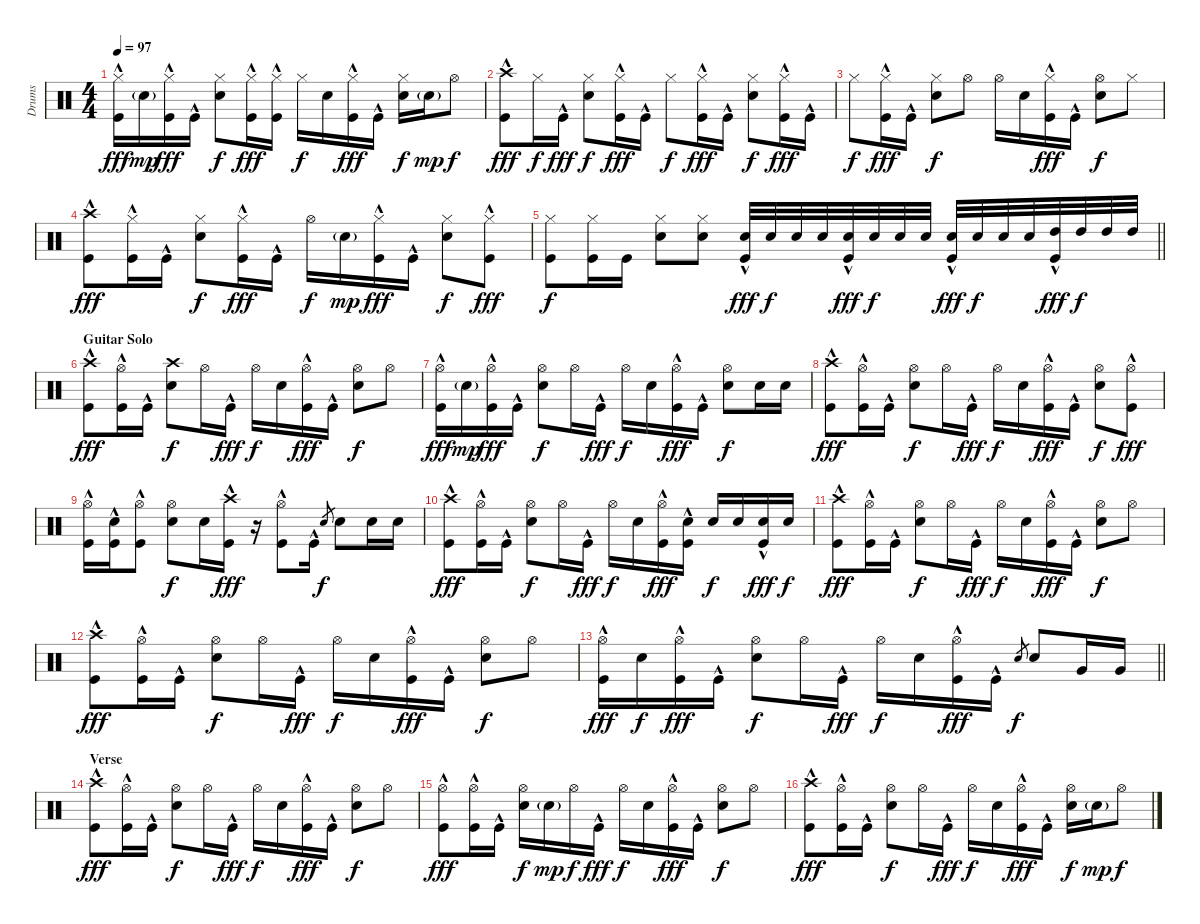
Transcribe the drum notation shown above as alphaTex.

\track ("Drums" "Drums") {instrument percussion}
\staff {score}
\articulation defaults
\ts (4 4)
\tempo 97
\clef neutral
\ks c
("Hi-Hat (closed)" "Kick (hit)"{hac}).16{dy fff} "Snare (hit) 2"{g}.16{dy mp} ("Hi-Hat (closed)" "Kick (hit)"{hac}).16{dy fff} "Kick (hit)"{hac}.16 ("Hi-Hat (closed)" "Snare (hit) 2").8{dy f} ("Hi-Hat (closed)" "Kick (hit)"{hac}).16{dy fff} ("Hi-Hat (closed)" "Kick (hit)"{hac}).16 "Hi-Hat (closed)".16{dy f} "Snare (hit) 2".16 ("Hi-Hat (closed)" "Kick (hit)"{hac}).16{dy fff} "Kick (hit)"{hac}.16 ("Hi-Hat (closed)" "Snare (hit) 2").16{dy f} "Snare (hit) 2"{g}.16{dy mp} "Hi-Hat (open)".8{dy f} |
("Crash high (hit)" "Kick (hit)"{hac}).8{dy fff} "Hi-Hat (closed)".16{dy f} "Kick (hit)"{hac}.16{dy fff} ("Hi-Hat (closed)" "Snare (hit) 2").8{dy f} ("Hi-Hat (closed)" "Kick (hit)"{hac}).16{dy fff} "Kick (hit)"{hac}.16 "Hi-Hat (closed)".8{dy f} ("Hi-Hat (closed)" "Kick (hit)"{hac}).16{dy fff} "Kick (hit)"{hac}.16 ("Hi-Hat (closed)" "Snare (hit) 2").8{dy f} ("Hi-Hat (closed)" "Kick (hit)"{hac}).16{dy fff} "Kick (hit)"{hac}.16 |
"Hi-Hat (closed)".8{dy f} ("Hi-Hat (closed)" "Kick (hit)"{hac}).16{dy fff} "Kick (hit)"{hac}.16 ("Hi-Hat (closed)" "Snare (hit) 2").8{dy f} "Hi-Hat (open)".8 "Hi-Hat (open)".16 "Snare (hit) 2".16 ("Hi-Hat (closed)" "Kick (hit)"{hac}).16{dy fff} "Kick (hit)"{hac}.16 ("Hi-Hat (open)" "Snare (hit) 2").8{dy f} "Hi-Hat (closed)".8 |
("Crash high (hit)" "Kick (hit)"{hac}).8{dy fff} ("Hi-Hat (closed)" "Kick (hit)"{hac}).16 "Kick (hit)"{hac}.16 ("Hi-Hat (closed)" "Snare (hit) 2").8{dy f} ("Hi-Hat (closed)" "Kick (hit)"{hac}).16{dy fff} "Kick (hit)"{hac}.16 "Hi-Hat (open)".16{dy f} "Snare (hit) 2"{g}.16{dy mp} ("Hi-Hat (closed)" "Kick (hit)"{hac}).16{dy fff} "Kick (hit)"{hac}.16 ("Hi-Hat (closed)" "Snare (hit) 2").8{dy f} ("Hi-Hat (closed)" "Kick (hit)"{hac}).8{dy fff} |
\barLineRight lightlight
("Hi-Hat (closed)" "Kick (hit)").8{dy f} ("Hi-Hat (closed)" "Kick (hit)").16 "Kick (hit)".16 ("Hi-Hat (closed)" "Snare (hit) 2").8 ("Hi-Hat (closed)" "Snare (hit) 2").8 ("Snare (hit) 2" "Kick (hit)"{hac}).32{dy fff} "Snare (hit) 2".32{dy f} "Snare (hit) 2".32 "Snare (hit) 2".32 ("Snare (hit) 2" "Kick (hit)"{hac}).32{dy fff} "Snare (hit) 2".32{dy f} "Snare (hit) 2".32 "Snare (hit) 2".32 ("Snare (hit) 2" "Kick (hit)"{hac}).32{dy fff} "Snare (hit) 2".32{dy f} "Snare (hit) 2".32 "Snare (hit) 2".32 ("High Tom (hit)" "Kick (hit)"{hac}).32{dy fff} "High Tom (hit)".32{dy f} "High Tom (hit)".32 "High Tom (hit)".32 |
\section ("" "Guitar Solo")
("Crash high (hit)" "Kick (hit)"{hac}).8{dy fff} ("Hi-Hat (open)" "Kick (hit)"{hac}).16 "Kick (hit)"{hac}.16 ("Crash high (hit)" "Snare (hit) 2").8{dy f} "Hi-Hat (open)".16 "Kick (hit)"{hac}.16{dy fff} "Hi-Hat (open)".16{dy f} "Snare (hit) 2".16 ("Hi-Hat (open)" "Kick (hit)"{hac}).16{dy fff} "Kick (hit)"{hac}.16 ("Hi-Hat (open)" "Snare (hit) 2").8{dy f} "Hi-Hat (open)".8 |
("Hi-Hat (open)" "Kick (hit)"{hac}).16{dy fff} "Snare (hit) 2"{g}.16{dy mp} ("Hi-Hat (open)" "Kick (hit)"{hac}).16{dy fff} "Kick (hit)"{hac}.16 ("Hi-Hat (open)" "Snare (hit) 2").8{dy f} "Hi-Hat (open)".16 "Kick (hit)"{hac}.16{dy fff} "Hi-Hat (open)".16{dy f} "Snare (hit) 2".16 ("Hi-Hat (open)" "Kick (hit)"{hac}).16{dy fff} "Kick (hit)"{hac}.16 ("Hi-Hat (open)" "Snare (hit) 2").8{dy f} "Snare (hit) 2".16 "Snare (hit) 2".16 |
("Crash high (hit)" "Kick (hit)"{hac}).8{dy fff} ("Hi-Hat (open)" "Kick (hit)"{hac}).16 "Kick (hit)"{hac}.16 ("Hi-Hat (open)" "Snare (hit) 2").8{dy f} "Hi-Hat (open)".16 "Kick (hit)"{hac}.16{dy fff} "Hi-Hat (open)".16{dy f} "Snare (hit) 2".16 ("Hi-Hat (open)" "Kick (hit)"{hac}).16{dy fff} "Kick (hit)"{hac}.16 ("Hi-Hat (open)" "Snare (hit) 2").8{dy f} ("Hi-Hat (open)" "Kick (hit)"{hac}).8{dy fff} |
("Hi-Hat (open)" "Kick (hit)"{hac}).16 ("Snare (hit) 2" "Kick (hit)"{hac}).16 ("Hi-Hat (open)" "Kick (hit)"{hac}).8 ("Hi-Hat (open)" "Snare (hit) 2").8{dy f} "Snare (hit) 2".16 ("Crash high (hit)" "Kick (hit)"{hac}).16{dy fff} r.16 ("Hi-Hat (open)" "Kick (hit)"{hac}).8 "Kick (hit)"{hac}.16 "Snare (hit) 2".8{gr dy f} "Snare (hit) 2".8 "Snare (hit) 2".16 "Snare (hit) 2".16 |
("Crash high (hit)" "Kick (hit)"{hac}).8{dy fff} ("Hi-Hat (open)" "Kick (hit)"{hac}).16 "Kick (hit)"{hac}.16 ("Hi-Hat (open)" "Snare (hit) 2").8{dy f} "Hi-Hat (open)".16 "Kick (hit)"{hac}.16{dy fff} "Hi-Hat (open)".16{dy f} "Snare (hit) 2".16 ("Hi-Hat (open)" "Kick (hit)"{hac}).16{dy fff} ("Snare (hit) 2" "Kick (hit)"{hac}).16 "Snare (hit) 2".16{dy f} "Snare (hit) 2".16 ("Snare (hit) 2" "Kick (hit)"{hac}).16{dy fff} "Snare (hit) 2".16{dy f} |
("Crash high (hit)" "Kick (hit)"{hac}).8{dy fff} ("Hi-Hat (open)" "Kick (hit)"{hac}).16 "Kick (hit)"{hac}.16 ("Hi-Hat (open)" "Snare (hit) 2").8{dy f} "Hi-Hat (open)".16 "Kick (hit)"{hac}.16{dy fff} "Hi-Hat (open)".16{dy f} "Snare (hit) 2".16 ("Hi-Hat (open)" "Kick (hit)"{hac}).16{dy fff} "Kick (hit)"{hac}.16 ("Hi-Hat (open)" "Snare (hit) 2").8{dy f} "Hi-Hat (open)".8 |
("Crash high (hit)" "Kick (hit)"{hac}).8{dy fff} ("Hi-Hat (open)" "Kick (hit)"{hac}).16 "Kick (hit)"{hac}.16 ("Hi-Hat (open)" "Snare (hit) 2").8{dy f} "Hi-Hat (open)".16 "Kick (hit)"{hac}.16{dy fff} "Hi-Hat (open)".16{dy f} "Snare (hit) 2".16 ("Hi-Hat (open)" "Kick (hit)"{hac}).16{dy fff} "Kick (hit)"{hac}.16 ("Hi-Hat (open)" "Snare (hit) 2").8{dy f} "Hi-Hat (open)".8 |
\barLineRight lightlight
("Hi-Hat (open)" "Kick (hit)"{hac}).16{dy fff} "Snare (hit) 2".16{dy f} ("Hi-Hat (open)" "Kick (hit)"{hac}).16{dy fff} "Kick (hit)"{hac}.16 ("Hi-Hat (open)" "Snare (hit) 2").8{dy f} "Hi-Hat (open)".16 "Kick (hit)"{hac}.16{dy fff} "Hi-Hat (open)".16{dy f} "Snare (hit) 2".16 ("Hi-Hat (open)" "Kick (hit)"{hac}).16{dy fff} "Kick (hit)"{hac}.16 "Snare (hit) 2".8{gr dy f} "Snare (hit) 2".8 "Very Low Tom (hit)".16 "Very Low Tom (hit)".16 |
\section ("" "Verse")
("Crash high (hit)" "Kick (hit)"{hac}).8{dy fff} ("Hi-Hat (open)" "Kick (hit)"{hac}).16 "Kick (hit)"{hac}.16 ("Hi-Hat (open)" "Snare (hit) 2").8{dy f} "Hi-Hat (open)".16 "Kick (hit)"{hac}.16{dy fff} "Hi-Hat (open)".16{dy f} "Snare (hit) 2".16 ("Hi-Hat (open)" "Kick (hit)"{hac}).16{dy fff} "Kick (hit)"{hac}.16 ("Hi-Hat (open)" "Snare (hit) 2").8{dy f} "Hi-Hat (open)".8 |
("Hi-Hat (open)" "Kick (hit)"{hac}).8{dy fff} ("Hi-Hat (open)" "Kick (hit)"{hac}).16 "Kick (hit)"{hac}.16 ("Hi-Hat (open)" "Snare (hit) 2").16{dy f} "Snare (hit) 2"{g}.16{dy mp} "Hi-Hat (open)".16{dy f} "Kick (hit)"{hac}.16{dy fff} "Hi-Hat (open)".16{dy f} "Snare (hit) 2".16 ("Hi-Hat (open)" "Kick (hit)"{hac}).16{dy fff} "Kick (hit)"{hac}.16 ("Hi-Hat (open)" "Snare (hit) 2").8{dy f} "Hi-Hat (open)".8 |
("Crash high (hit)" "Kick (hit)"{hac}).8{dy fff} ("Hi-Hat (open)" "Kick (hit)"{hac}).16 "Kick (hit)"{hac}.16 ("Hi-Hat (open)" "Snare (hit) 2").8{dy f} "Hi-Hat (open)".16 "Kick (hit)"{hac}.16{dy fff} "Hi-Hat (open)".16{dy f} "Snare (hit) 2".16 ("Hi-Hat (open)" "Kick (hit)"{hac}).16{dy fff} "Kick (hit)"{hac}.16 ("Hi-Hat (open)" "Snare (hit) 2").16{dy f} "Snare (hit) 2"{g}.16{dy mp} "Hi-Hat (open)".8{dy f}
